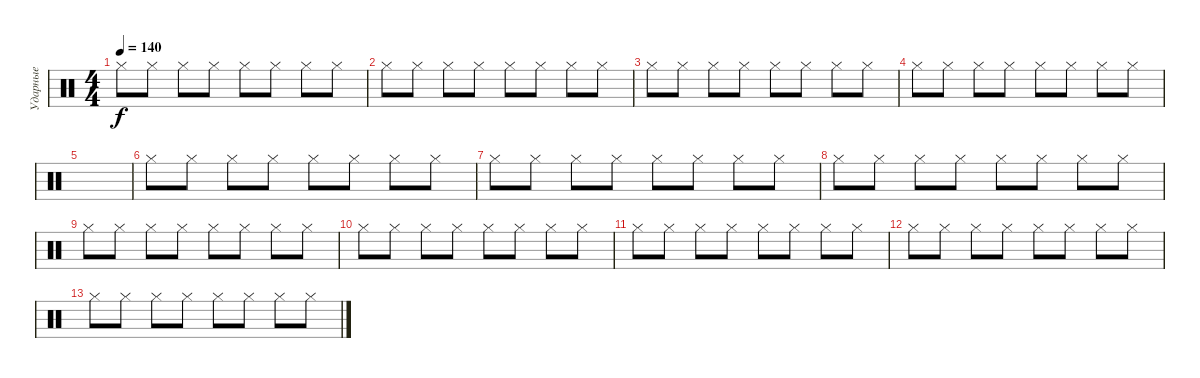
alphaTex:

\track ("Ударные" "Ударные") {instrument percussion}
\staff {score}
\articulation defaults
\ts (4 4)
\tempo 140
\clef neutral
\ks c "Hi-Hat (closed)".8{dy f} "Hi-Hat (closed)".8 "Hi-Hat (closed)".8 "Hi-Hat (closed)".8 "Hi-Hat (closed)".8 "Hi-Hat (closed)".8 "Hi-Hat (closed)".8 "Hi-Hat (closed)".8
|
"Hi-Hat (closed)".8 "Hi-Hat (closed)".8 "Hi-Hat (closed)".8 "Hi-Hat (closed)".8 "Hi-Hat (closed)".8 "Hi-Hat (closed)".8 "Hi-Hat (closed)".8 "Hi-Hat (closed)".8 |
"Hi-Hat (closed)".8 "Hi-Hat (closed)".8 "Hi-Hat (closed)".8 "Hi-Hat (closed)".8 "Hi-Hat (closed)".8 "Hi-Hat (closed)".8 "Hi-Hat (closed)".8 "Hi-Hat (closed)".8 |
"Hi-Hat (closed)".8 "Hi-Hat (closed)".8 "Hi-Hat (closed)".8 "Hi-Hat (closed)".8 "Hi-Hat (closed)".8 "Hi-Hat (closed)".8 "Hi-Hat (closed)".8 "Hi-Hat (closed)".8 |
|
"Hi-Hat (closed)".8 "Hi-Hat (closed)".8 "Hi-Hat (closed)".8 "Hi-Hat (closed)".8 "Hi-Hat (closed)".8 "Hi-Hat (closed)".8 "Hi-Hat (closed)".8 "Hi-Hat (closed)".8 |
"Hi-Hat (closed)".8 "Hi-Hat (closed)".8 "Hi-Hat (closed)".8 "Hi-Hat (closed)".8 "Hi-Hat (closed)".8 "Hi-Hat (closed)".8 "Hi-Hat (closed)".8 "Hi-Hat (closed)".8 |
"Hi-Hat (closed)".8 "Hi-Hat (closed)".8 "Hi-Hat (closed)".8 "Hi-Hat (closed)".8 "Hi-Hat (closed)".8 "Hi-Hat (closed)".8 "Hi-Hat (closed)".8 "Hi-Hat (closed)".8 |
"Hi-Hat (closed)".8 "Hi-Hat (closed)".8 "Hi-Hat (closed)".8 "Hi-Hat (closed)".8 "Hi-Hat (closed)".8 "Hi-Hat (closed)".8 "Hi-Hat (closed)".8 "Hi-Hat (closed)".8 |
"Hi-Hat (closed)".8 "Hi-Hat (closed)".8 "Hi-Hat (closed)".8 "Hi-Hat (closed)".8 "Hi-Hat (closed)".8 "Hi-Hat (closed)".8 "Hi-Hat (closed)".8 "Hi-Hat (closed)".8 |
"Hi-Hat (closed)".8 "Hi-Hat (closed)".8 "Hi-Hat (closed)".8 "Hi-Hat (closed)".8 "Hi-Hat (closed)".8 "Hi-Hat (closed)".8 "Hi-Hat (closed)".8 "Hi-Hat (closed)".8 |
"Hi-Hat (closed)".8 "Hi-Hat (closed)".8 "Hi-Hat (closed)".8 "Hi-Hat (closed)".8 "Hi-Hat (closed)".8 "Hi-Hat (closed)".8 "Hi-Hat (closed)".8 "Hi-Hat (closed)".8 |
"Hi-Hat (closed)".8 "Hi-Hat (closed)".8 "Hi-Hat (closed)".8 "Hi-Hat (closed)".8 "Hi-Hat (closed)".8 "Hi-Hat (closed)".8 "Hi-Hat (closed)".8 "Hi-Hat (closed)".8
